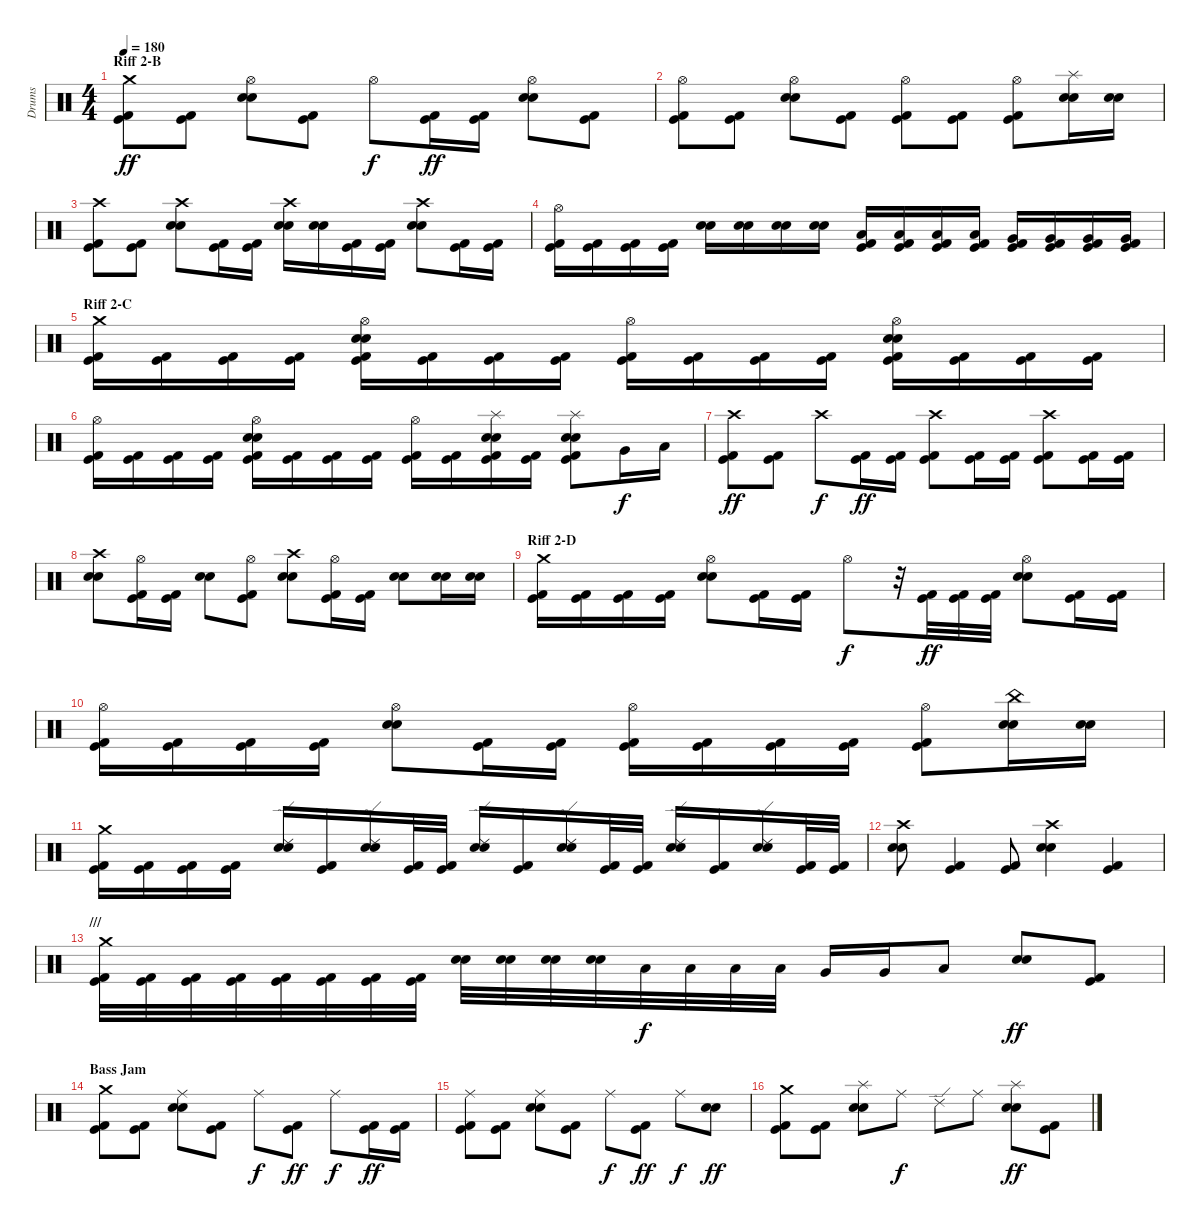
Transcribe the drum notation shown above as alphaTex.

\track ("Drums" "Drums") {instrument percussion}
\staff {score}
\articulation defaults
\ts (4 4)
\section ("" "Riff 2-B")
\tempo 180
\clef neutral
\ks c
("Kick (hit)" "Kick (hit) 2" "Crash medium (hit)").8{dy ff} ("Kick (hit)" "Kick (hit) 2").8 ("Electric Snare (hit)" "Electric Snare (hit)" "Hi-Hat (open)").8 ("Kick (hit)" "Kick (hit) 2").8 "Hi-Hat (open)".8{dy f} ("Kick (hit)" "Kick (hit) 2").16{dy ff} ("Kick (hit)" "Kick (hit) 2").16 ("Electric Snare (hit)" "Electric Snare (hit)" "Hi-Hat (open)").8 ("Kick (hit)" "Kick (hit) 2").8 |
("Kick (hit)" "Kick (hit) 2" "Hi-Hat (open)").8 ("Kick (hit)" "Kick (hit) 2").8 ("Electric Snare (hit)" "Electric Snare (hit)" "Hi-Hat (open)").8 ("Kick (hit)" "Kick (hit) 2").8 ("Kick (hit)" "Kick (hit) 2" "Hi-Hat (open)").8 ("Kick (hit)" "Kick (hit) 2").8 ("Kick (hit)" "Kick (hit) 2" "Hi-Hat (open)").8 ("Electric Snare (hit)" "Electric Snare (hit)" "Splash (hit)").16 ("Electric Snare (hit)" "Electric Snare (hit)").16 |
("Kick (hit)" "Kick (hit) 2" "Crash high (hit)").8 ("Kick (hit)" "Kick (hit) 2").8 ("Electric Snare (hit)" "Electric Snare (hit)" "Crash high (hit)").8 ("Kick (hit)" "Kick (hit) 2").16 ("Kick (hit)" "Kick (hit) 2").16 ("Electric Snare (hit)" "Electric Snare (hit)" "Crash high (hit)").16 ("Electric Snare (hit)" "Electric Snare (hit)").16 ("Kick (hit)" "Kick (hit) 2").16 ("Kick (hit)" "Kick (hit) 2").16 ("Electric Snare (hit)" "Electric Snare (hit)" "Crash high (hit)").8 ("Kick (hit)" "Kick (hit) 2").16 ("Kick (hit)" "Kick (hit) 2").16 |
("Kick (hit)" "Kick (hit) 2" "Hi-Hat (open)").16 ("Kick (hit)" "Kick (hit) 2").16 ("Kick (hit)" "Kick (hit) 2").16 ("Kick (hit)" "Kick (hit) 2").16 ("Electric Snare (hit)" "Electric Snare (hit)").16 ("Electric Snare (hit)" "Electric Snare (hit)").16 ("Electric Snare (hit)" "Electric Snare (hit)").16 ("Electric Snare (hit)" "Electric Snare (hit)").16 ("Kick (hit)" "Kick (hit) 2" "Low Tom (hit)").16 ("Kick (hit)" "Kick (hit) 2" "Low Tom (hit)").16 ("Kick (hit)" "Kick (hit) 2" "Low Tom (hit)").16 ("Kick (hit)" "Kick (hit) 2" "Low Tom (hit)").16 ("Kick (hit)" "Kick (hit) 2" "Very Low Tom (hit)").16 ("Kick (hit)" "Kick (hit) 2" "Very Low Tom (hit)").16 ("Kick (hit)" "Kick (hit) 2" "Very Low Tom (hit)").16 ("Kick (hit)" "Kick (hit) 2" "Very Low Tom (hit)").16 |
\section ("" "Riff 2-C")
("Kick (hit)" "Kick (hit) 2" "Crash medium (hit)").16 ("Kick (hit)" "Kick (hit) 2").16 ("Kick (hit)" "Kick (hit) 2").16 ("Kick (hit)" "Kick (hit) 2").16 ("Kick (hit)" "Kick (hit) 2" "Electric Snare (hit)" "Electric Snare (hit)" "Hi-Hat (open)").16 ("Kick (hit)" "Kick (hit) 2").16 ("Kick (hit)" "Kick (hit) 2").16 ("Kick (hit)" "Kick (hit) 2").16 ("Kick (hit)" "Kick (hit) 2" "Hi-Hat (open)").16 ("Kick (hit)" "Kick (hit) 2").16 ("Kick (hit)" "Kick (hit) 2").16 ("Kick (hit)" "Kick (hit) 2").16 ("Kick (hit)" "Kick (hit) 2" "Electric Snare (hit)" "Electric Snare (hit)" "Hi-Hat (open)").16 ("Kick (hit)" "Kick (hit) 2").16 ("Kick (hit)" "Kick (hit) 2").16 ("Kick (hit)" "Kick (hit) 2").16 |
("Kick (hit)" "Kick (hit) 2" "Hi-Hat (open)").16 ("Kick (hit)" "Kick (hit) 2").16 ("Kick (hit)" "Kick (hit) 2").16 ("Kick (hit)" "Kick (hit) 2").16 ("Kick (hit)" "Kick (hit) 2" "Electric Snare (hit)" "Electric Snare (hit)" "Hi-Hat (open)").16 ("Kick (hit)" "Kick (hit) 2").16 ("Kick (hit)" "Kick (hit) 2").16 ("Kick (hit)" "Kick (hit) 2").16 ("Kick (hit)" "Kick (hit) 2" "Hi-Hat (open)").16 ("Kick (hit)" "Kick (hit) 2").16 ("Kick (hit)" "Kick (hit) 2" "Electric Snare (hit)" "Electric Snare (hit)" "Splash (hit)").16 ("Kick (hit)" "Kick (hit) 2").16 ("Kick (hit)" "Kick (hit) 2" "Electric Snare (hit)" "Electric Snare (hit)" "Splash (hit)").8 "Very Low Tom (hit)".16{dy f} "Low Floor Tom (hit)".16 |
("Kick (hit)" "Kick (hit) 2" "Crash high (hit)").8{dy ff} ("Kick (hit)" "Kick (hit) 2").8 "Crash high (hit)".8{dy f} ("Kick (hit)" "Kick (hit) 2").16{dy ff} ("Kick (hit)" "Kick (hit) 2").16 ("Kick (hit)" "Kick (hit) 2" "Crash high (hit)").8 ("Kick (hit)" "Kick (hit) 2").16 ("Kick (hit)" "Kick (hit) 2").16 ("Kick (hit)" "Kick (hit) 2" "Crash high (hit)").8 ("Kick (hit)" "Kick (hit) 2").16 ("Kick (hit)" "Kick (hit) 2").16 |
("Electric Snare (hit)" "Electric Snare (hit)" "Crash high (hit)").8 ("Kick (hit)" "Kick (hit) 2" "Hi-Hat (open)").16 ("Kick (hit)" "Kick (hit) 2").16 ("Electric Snare (hit)" "Electric Snare (hit)").8 ("Kick (hit)" "Kick (hit) 2" "Hi-Hat (open)").8 ("Electric Snare (hit)" "Electric Snare (hit)" "Crash high (hit)").8 ("Kick (hit)" "Kick (hit) 2" "Hi-Hat (open)").16 ("Kick (hit)" "Kick (hit) 2").16 ("Electric Snare (hit)" "Electric Snare (hit)").8 ("Electric Snare (hit)" "Electric Snare (hit)").16 ("Electric Snare (hit)" "Electric Snare (hit)").16 |
\section ("" "Riff 2-D")
("Kick (hit)" "Kick (hit) 2" "Crash medium (hit)").16 ("Kick (hit)" "Kick (hit) 2").16 ("Kick (hit)" "Kick (hit) 2").16 ("Kick (hit)" "Kick (hit) 2").16 ("Electric Snare (hit)" "Electric Snare (hit)" "Hi-Hat (open)").8 ("Kick (hit)" "Kick (hit) 2").16 ("Kick (hit)" "Kick (hit) 2").16 "Hi-Hat (open)".8{dy f} r.32 ("Kick (hit)" "Kick (hit) 2").32{dy ff} ("Kick (hit)" "Kick (hit) 2").32 ("Kick (hit)" "Kick (hit) 2").32 ("Electric Snare (hit)" "Electric Snare (hit)" "Hi-Hat (open)").8 ("Kick (hit)" "Kick (hit) 2").16 ("Kick (hit)" "Kick (hit) 2").16 |
("Kick (hit)" "Kick (hit) 2" "Hi-Hat (open)").16 ("Kick (hit)" "Kick (hit) 2").16 ("Kick (hit)" "Kick (hit) 2").16 ("Kick (hit)" "Kick (hit) 2").16 ("Electric Snare (hit)" "Electric Snare (hit)" "Hi-Hat (open)").8 ("Kick (hit)" "Kick (hit) 2").16 ("Kick (hit)" "Kick (hit) 2").16 ("Kick (hit)" "Kick (hit) 2" "Hi-Hat (open)").16 ("Kick (hit)" "Kick (hit) 2").16 ("Kick (hit)" "Kick (hit) 2").16 ("Kick (hit)" "Kick (hit) 2").16 ("Kick (hit)" "Kick (hit) 2" "Hi-Hat (open)").8 ("Electric Snare (hit)" "Electric Snare (hit)" "China (hit)").16 ("Electric Snare (hit)" "Electric Snare (hit)").16 |
("Kick (hit)" "Kick (hit) 2" "Crash medium (hit)").16 ("Kick (hit)" "Kick (hit) 2").16 ("Kick (hit)" "Kick (hit) 2").16 ("Kick (hit)" "Kick (hit) 2").16 ("Electric Snare (hit)" "Electric Snare (hit)" "Ride (edge) 2").16 ("Kick (hit)" "Kick (hit) 2").16 ("Electric Snare (hit)" "Electric Snare (hit)" "Ride (edge) 2").16 ("Kick (hit)" "Kick (hit) 2").32 ("Kick (hit)" "Kick (hit) 2").32 ("Electric Snare (hit)" "Electric Snare (hit)" "Ride (edge) 2").16 ("Kick (hit)" "Kick (hit) 2").16 ("Electric Snare (hit)" "Electric Snare (hit)" "Ride (edge) 2").16 ("Kick (hit)" "Kick (hit) 2").32 ("Kick (hit)" "Kick (hit) 2").32 ("Electric Snare (hit)" "Electric Snare (hit)" "Ride (edge) 2").16 ("Kick (hit)" "Kick (hit) 2").16 ("Electric Snare (hit)" "Electric Snare (hit)" "Ride (edge) 2").16 ("Kick (hit)" "Kick (hit) 2").32 ("Kick (hit)" "Kick (hit) 2").32 |
("Electric Snare (hit)" "Electric Snare (hit)" "Crash high (hit)").8 ("Kick (hit)" "Kick (hit) 2").4 ("Kick (hit)" "Kick (hit) 2").8 ("Electric Snare (hit)" "Electric Snare (hit)" "Crash high (hit)").4 ("Kick (hit)" "Kick (hit) 2").4 |
\section ("" "///")
("Kick (hit)" "Kick (hit) 2" "Crash medium (hit)").32 ("Kick (hit)" "Kick (hit) 2").32 ("Kick (hit)" "Kick (hit) 2").32 ("Kick (hit)" "Kick (hit) 2").32 ("Kick (hit)" "Kick (hit) 2").32 ("Kick (hit)" "Kick (hit) 2").32 ("Kick (hit)" "Kick (hit) 2").32 ("Kick (hit)" "Kick (hit) 2").32 ("Electric Snare (hit)" "Electric Snare (hit)").32 ("Electric Snare (hit)" "Electric Snare (hit)").32 ("Electric Snare (hit)" "Electric Snare (hit)").32 ("Electric Snare (hit)" "Electric Snare (hit)").32 "Low Tom (hit)".32{dy f} "Low Tom (hit)".32 "Low Tom (hit)".32 "Low Tom (hit)".32 "Very Low Tom (hit)".16 "Very Low Tom (hit)".16 "Low Floor Tom (hit)".8 ("Electric Snare (hit)" "Electric Snare (hit)").8{dy ff} ("Kick (hit)" "Kick (hit) 2").8 |
\section ("" "Bass Jam")
("Kick (hit)" "Kick (hit) 2" "Crash medium (hit)").8 ("Kick (hit)" "Kick (hit) 2").8 ("Electric Snare (hit)" "Electric Snare (hit)" "Ride (middle)").8 ("Kick (hit)" "Kick (hit) 2").8 "Ride (middle)".8{dy f} ("Kick (hit)" "Kick (hit) 2").8{dy ff} "Ride (middle)".8{dy f} ("Kick (hit)" "Kick (hit) 2").16{dy ff} ("Kick (hit)" "Kick (hit) 2").16 |
("Kick (hit)" "Kick (hit) 2" "Ride (middle)").8 ("Kick (hit)" "Kick (hit) 2").8 ("Electric Snare (hit)" "Electric Snare (hit)" "Ride (middle)").8 ("Kick (hit)" "Kick (hit) 2").8 "Ride (middle)".8{dy f} ("Kick (hit)" "Kick (hit) 2").8{dy ff} "Ride (middle)".8{dy f} ("Electric Snare (hit)" "Electric Snare (hit)").8{dy ff} |
("Kick (hit)" "Kick (hit) 2" "Crash medium (hit)").8 ("Kick (hit)" "Kick (hit) 2").8 ("Electric Snare (hit)" "Electric Snare (hit)" "Splash (hit)").8 "Ride (middle)".8{dy f} "Ride (edge) 2".8 "Ride (middle)".8 ("Electric Snare (hit)" "Electric Snare (hit)" "Splash (hit)").8{dy ff} ("Kick (hit)" "Kick (hit) 2").8
